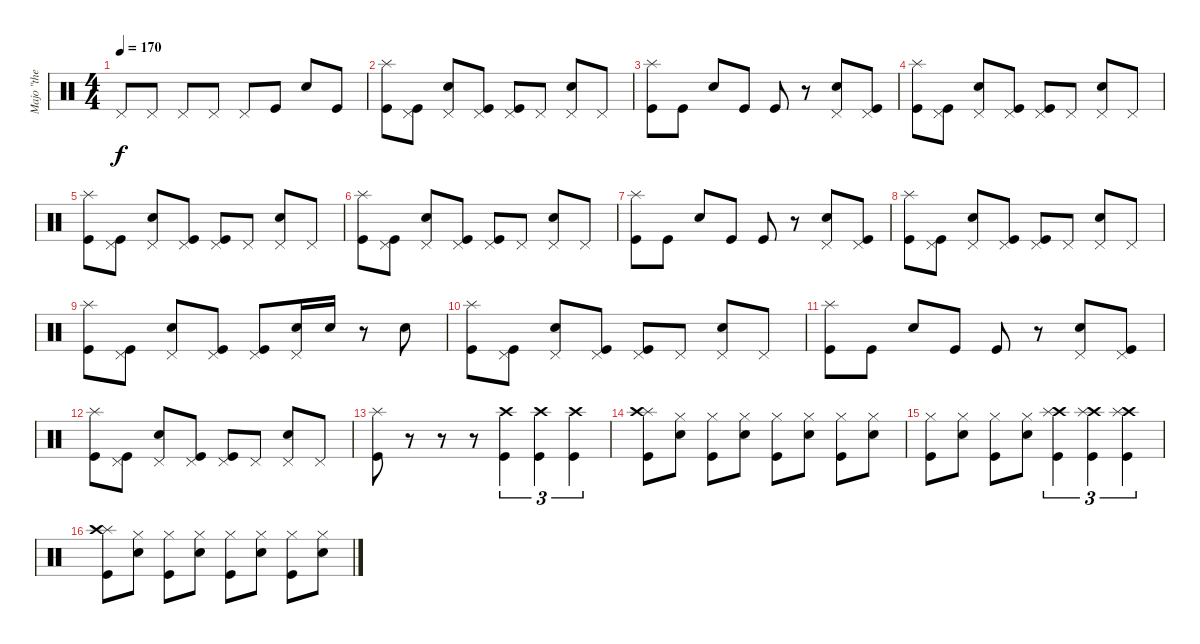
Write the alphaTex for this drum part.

\track ("Majo \"the Dremmel\" Hirt" "Majo \"the ") {instrument percussion}
\staff {score}
\articulation defaults
\ts (4 4)
\tempo 170
\clef neutral
\ks c "Pedal Hi-Hat (hit)".8{dy f} "Pedal Hi-Hat (hit)".8 "Pedal Hi-Hat (hit)".8 "Pedal Hi-Hat (hit)".8 "Pedal Hi-Hat (hit)".8 "Kick (hit)".8 "Electric Snare (hit)".8 "Kick (hit)".8
|
("Splash (hit)" "Kick (hit)").8 ("Pedal Hi-Hat (hit)" "Kick (hit)").8 ("Pedal Hi-Hat (hit)" "Electric Snare (hit)").8 ("Pedal Hi-Hat (hit)" "Kick (hit)").8 ("Pedal Hi-Hat (hit)" "Kick (hit)").8 "Pedal Hi-Hat (hit)".8 ("Pedal Hi-Hat (hit)" "Electric Snare (hit)").8 "Pedal Hi-Hat (hit)".8 |
("Splash (hit)" "Kick (hit)").8 "Kick (hit)".8 "Electric Snare (hit)".8 "Kick (hit)".8 "Kick (hit)".8 r.8 ("Pedal Hi-Hat (hit)" "Electric Snare (hit)").8 ("Pedal Hi-Hat (hit)" "Kick (hit)").8 |
("Splash (hit)" "Kick (hit)").8 ("Pedal Hi-Hat (hit)" "Kick (hit)").8 ("Pedal Hi-Hat (hit)" "Electric Snare (hit)").8 ("Pedal Hi-Hat (hit)" "Kick (hit)").8 ("Pedal Hi-Hat (hit)" "Kick (hit)").8 "Pedal Hi-Hat (hit)".8 ("Pedal Hi-Hat (hit)" "Electric Snare (hit)").8 "Pedal Hi-Hat (hit)".8 |
("Splash (hit)" "Kick (hit)").8 ("Pedal Hi-Hat (hit)" "Kick (hit)").8 ("Pedal Hi-Hat (hit)" "Electric Snare (hit)").8 ("Pedal Hi-Hat (hit)" "Kick (hit)").8 ("Pedal Hi-Hat (hit)" "Kick (hit)").8 "Pedal Hi-Hat (hit)".8 ("Pedal Hi-Hat (hit)" "Electric Snare (hit)").8 "Pedal Hi-Hat (hit)".8 |
("Splash (hit)" "Kick (hit)").8 ("Pedal Hi-Hat (hit)" "Kick (hit)").8 ("Pedal Hi-Hat (hit)" "Electric Snare (hit)").8 ("Pedal Hi-Hat (hit)" "Kick (hit)").8 ("Pedal Hi-Hat (hit)" "Kick (hit)").8 "Pedal Hi-Hat (hit)".8 ("Pedal Hi-Hat (hit)" "Electric Snare (hit)").8 "Pedal Hi-Hat (hit)".8 |
("Splash (hit)" "Kick (hit)").8 "Kick (hit)".8 "Electric Snare (hit)".8 "Kick (hit)".8 "Kick (hit)".8 r.8 ("Pedal Hi-Hat (hit)" "Electric Snare (hit)").8 ("Pedal Hi-Hat (hit)" "Kick (hit)").8 |
("Splash (hit)" "Kick (hit)").8 ("Pedal Hi-Hat (hit)" "Kick (hit)").8 ("Pedal Hi-Hat (hit)" "Electric Snare (hit)").8 ("Pedal Hi-Hat (hit)" "Kick (hit)").8 ("Pedal Hi-Hat (hit)" "Kick (hit)").8 "Pedal Hi-Hat (hit)".8 ("Pedal Hi-Hat (hit)" "Electric Snare (hit)").8 "Pedal Hi-Hat (hit)".8 |
("Splash (hit)" "Kick (hit)").8 ("Pedal Hi-Hat (hit)" "Kick (hit)").8 ("Pedal Hi-Hat (hit)" "Electric Snare (hit)").8 ("Pedal Hi-Hat (hit)" "Kick (hit)").8 ("Pedal Hi-Hat (hit)" "Kick (hit)").8 ("Pedal Hi-Hat (hit)" "Electric Snare (hit)").16 "Electric Snare (hit)".16 r.8 "Electric Snare (hit)".8 |
("Splash (hit)" "Kick (hit)").8 ("Pedal Hi-Hat (hit)" "Kick (hit)").8 ("Pedal Hi-Hat (hit)" "Electric Snare (hit)").8 ("Pedal Hi-Hat (hit)" "Kick (hit)").8 ("Pedal Hi-Hat (hit)" "Kick (hit)").8 "Pedal Hi-Hat (hit)".8 ("Pedal Hi-Hat (hit)" "Electric Snare (hit)").8 "Pedal Hi-Hat (hit)".8 |
("Splash (hit)" "Kick (hit)").8 "Kick (hit)".8 "Electric Snare (hit)".8 "Kick (hit)".8 "Kick (hit)".8 r.8 ("Pedal Hi-Hat (hit)" "Electric Snare (hit)").8 ("Pedal Hi-Hat (hit)" "Kick (hit)").8 |
("Splash (hit)" "Kick (hit)").8 ("Pedal Hi-Hat (hit)" "Kick (hit)").8 ("Pedal Hi-Hat (hit)" "Electric Snare (hit)").8 ("Pedal Hi-Hat (hit)" "Kick (hit)").8 ("Pedal Hi-Hat (hit)" "Kick (hit)").8 "Pedal Hi-Hat (hit)".8 ("Pedal Hi-Hat (hit)" "Electric Snare (hit)").8 "Pedal Hi-Hat (hit)".8 |
("Splash (hit)" "Kick (hit)").8 r.8 r.8 r.8 ("Crash high (hit)" "Kick (hit)").4{tu (3 2)} ("Crash high (hit)" "Kick (hit)").4{tu (3 2)} ("Crash high (hit)" "Kick (hit)").4{tu (3 2)} |
("Splash (hit)" "Crash high (hit)" "Kick (hit)").8 ("Hi-Hat (closed)" "Electric Snare (hit)").8 ("Hi-Hat (closed)" "Kick (hit)").8 ("Hi-Hat (closed)" "Electric Snare (hit)").8 ("Hi-Hat (closed)" "Kick (hit)").8 ("Hi-Hat (closed)" "Electric Snare (hit)").8 ("Hi-Hat (closed)" "Kick (hit)").8 ("Hi-Hat (closed)" "Electric Snare (hit)").8 |
("Hi-Hat (closed)" "Kick (hit)").8 ("Hi-Hat (closed)" "Electric Snare (hit)").8 ("Hi-Hat (closed)" "Kick (hit)").8 ("Hi-Hat (closed)" "Electric Snare (hit)").8 ("Crash high (hit)" "Splash (hit)" "Kick (hit)").4{tu (3 2)} ("Crash high (hit)" "Splash (hit)" "Kick (hit)").4{tu (3 2)} ("Crash high (hit)" "Splash (hit)" "Kick (hit)").4{tu (3 2)} |
("Splash (hit)" "Crash high (hit)" "Kick (hit)").8 ("Hi-Hat (closed)" "Electric Snare (hit)").8 ("Hi-Hat (closed)" "Kick (hit)").8 ("Hi-Hat (closed)" "Electric Snare (hit)").8 ("Hi-Hat (closed)" "Kick (hit)").8 ("Hi-Hat (closed)" "Electric Snare (hit)").8 ("Hi-Hat (closed)" "Kick (hit)").8 ("Hi-Hat (closed)" "Electric Snare (hit)").8
